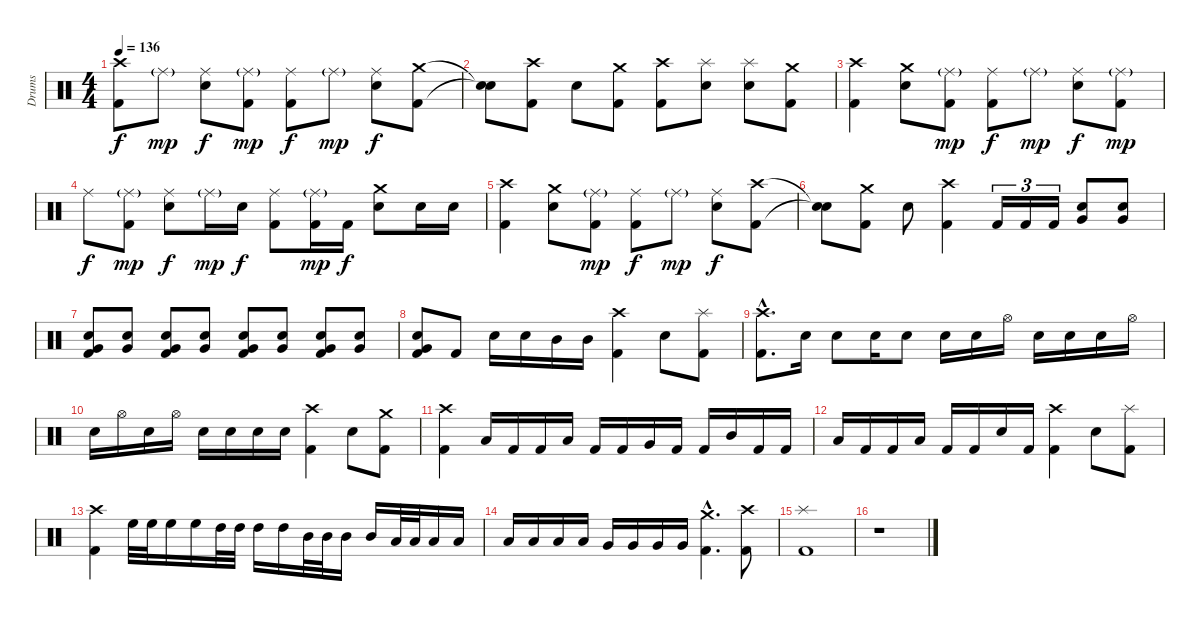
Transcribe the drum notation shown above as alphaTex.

\track ("Drums" "Drums") {instrument percussion}
\staff {score}
\articulation defaults
\ts (4 4)
\tempo 136
\clef neutral
\ks c
("Crash high (hit)" "Kick (hit) 2").8{dy f} "Ride (middle)"{g}.8{dy mp} ("Ride (middle)" "Snare (hit) 2").8{dy f} ("Ride (middle)"{g} "Kick (hit) 2").8{dy mp} ("Ride (middle)" "Kick (hit) 2").8{dy f} "Ride (middle)"{g}.8{dy mp} ("Ride (middle)" "Snare (hit) 2").8{dy f} ("Crash medium (hit)" "Kick (hit) 2").8 |
("Snare (hit)"{t} "Snare (hit)"{t}).8 ("Crash high (hit)" "Kick (hit) 2").8 "Snare (hit) 2".8 ("Crash medium (hit)" "Kick (hit) 2").8 ("Crash high (hit)" "Kick (hit) 2").8 ("Splash (hit)" "Snare (hit) 2").8 ("Splash (hit)" "Snare (hit) 2").8 ("Crash medium (hit)" "Kick (hit) 2").8 |
("Crash high (hit)" "Kick (hit) 2").4 ("Crash medium (hit)" "Snare (hit) 2").8 ("Ride (middle)"{g} "Kick (hit) 2").8{dy mp} ("Ride (middle)" "Kick (hit) 2").8{dy f} "Ride (middle)"{g}.8{dy mp} ("Ride (middle)" "Snare (hit) 2").8{dy f} ("Ride (middle)"{g} "Kick (hit) 2").8{dy mp} |
"Ride (middle)".8{dy f} ("Ride (middle)"{g} "Kick (hit) 2").8{dy mp} ("Ride (middle)" "Snare (hit) 2").8{dy f} "Ride (middle)"{g}.16{dy mp} "Snare (hit) 2".16{dy f} ("Ride (middle)" "Kick (hit) 2").8 ("Ride (middle)"{g} "Kick (hit) 2").16{dy mp} "Kick (hit) 2".16{dy f} ("Crash medium (hit)" "Snare (hit) 2").8 "Snare (hit) 2".16 "Snare (hit) 2".16 |
("Crash high (hit)" "Kick (hit) 2").4 ("Crash medium (hit)" "Snare (hit) 2").8 ("Ride (middle)"{g} "Kick (hit) 2").8{dy mp} ("Ride (middle)" "Kick (hit) 2").8{dy f} "Ride (middle)"{g}.8{dy mp} ("Ride (middle)" "Snare (hit) 2").8{dy f} ("Crash high (hit)" "Kick (hit) 2").8 |
("Snare (hit)"{t} "Snare (hit)"{t}).8 ("Crash medium (hit)" "Kick (hit) 2").8 "Snare (hit) 2".8 ("Crash high (hit)" "Kick (hit) 2").4 "Kick (hit) 2".16{tu (3 2)} "Kick (hit) 2".16{tu (3 2)} "Kick (hit) 2".16{tu (3 2)} ("Very Low Tom (hit)" "Snare (hit) 2").8 ("Very Low Tom (hit)" "Snare (hit) 2").8 |
("Very Low Tom (hit)" "Snare (hit) 2" "Kick (hit) 2").8 ("Very Low Tom (hit)" "Snare (hit) 2").8 ("Very Low Tom (hit)" "Snare (hit) 2" "Kick (hit) 2").8 ("Very Low Tom (hit)" "Snare (hit) 2").8 ("Very Low Tom (hit)" "Snare (hit) 2" "Kick (hit) 2").8 ("Very Low Tom (hit)" "Snare (hit) 2").8 ("Very Low Tom (hit)" "Snare (hit) 2" "Kick (hit) 2").8 ("Very Low Tom (hit)" "Snare (hit) 2").8 |
("Very Low Tom (hit)" "Snare (hit) 2" "Kick (hit) 2").8 "Kick (hit) 2".8 "Snare (hit) 2".16 "Snare (hit) 2".16 "Mid Tom (hit)".16 "Mid Tom (hit)".16 ("Crash high (hit)" "Kick (hit) 2").4 "Snare (hit) 2".8 ("Splash (hit)" "Kick (hit) 2").8 |
("Crash high (hit)"{hac} "Kick (hit) 2"{hac}).8{d} "Snare (hit) 2".16 "Snare (hit) 2".8 "Snare (hit) 2".16 "Snare (hit) 2".8 "Snare (hit) 2".16 "Snare (hit) 2".16 "Hi-Hat (open)".16 "Snare (hit) 2".16 "Snare (hit) 2".16 "Snare (hit) 2".16 "Hi-Hat (open)".16 |
"Snare (hit) 2".16 "Hi-Hat (open)".16 "Snare (hit) 2".16 "Hi-Hat (open)".16 "Snare (hit) 2".16 "Snare (hit) 2".16 "Snare (hit) 2".16 "Snare (hit) 2".16 ("Crash high (hit)" "Kick (hit) 2").4 "Snare (hit) 2".8 ("Crash medium (hit)" "Kick (hit) 2").8 |
("Crash high (hit)" "Kick (hit) 2").4 "Low Floor Tom (hit)".16 "Kick (hit) 2".16 "Kick (hit) 2".16 "Low Tom (hit)".16 "Kick (hit) 2".16 "Kick (hit) 2".16 "Very Low Tom (hit)".16 "Kick (hit) 2".16 "Kick (hit) 2".16 "Mid Tom (hit)".16 "Kick (hit) 2".16 "Kick (hit) 2".16 |
"Low Floor Tom (hit)".16 "Kick (hit) 2".16 "Kick (hit) 2".16 "Low Tom (hit)".16 "Kick (hit) 2".16 "Kick (hit) 2".16 "Snare (hit) 2".16 "Kick (hit) 2".16 ("Crash high (hit)" "Kick (hit) 2").4 "Snare (hit) 2".8 ("Splash (hit)" "Kick (hit) 2").8 |
("Crash high (hit)" "Kick (hit) 2").4 "High Floor Tom (hit)".32 "High Floor Tom (hit)".32 "High Floor Tom (hit)".16 "High Floor Tom (hit)".16 "High Tom (hit)".32 "High Tom (hit)".32 "High Tom (hit)".16 "High Tom (hit)".16 "Mid Tom (hit)".32 "Mid Tom (hit)".32 "Mid Tom (hit)".16 "Mid Tom (hit)".16 "Low Tom (hit)".32 "Low Tom (hit)".32 "Low Tom (hit)".16 "Low Tom (hit)".16 |
"Low Tom (hit)".16 "Low Tom (hit)".16 "Low Tom (hit)".16 "Low Tom (hit)".16 "Very Low Tom (hit)".16 "Very Low Tom (hit)".16 "Very Low Tom (hit)".16 "Very Low Tom (hit)".16 ("Crash medium (hit)"{hac} "Kick (hit) 2"{hac}).4{d} ("Crash high (hit)" "Kick (hit) 2").8 |
("Splash (hit)" "Kick (hit) 2").1 |
r.1
